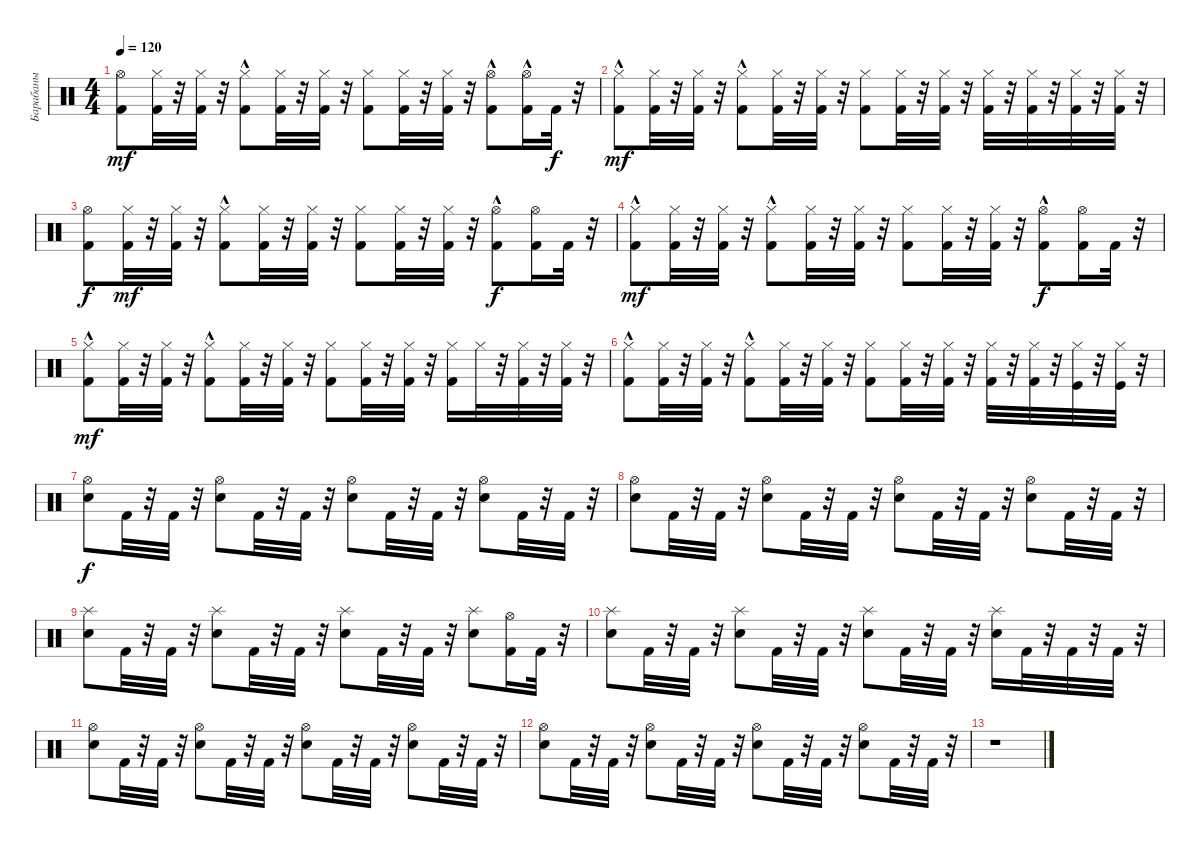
\track ("Барабаны" "Барабаны") {instrument percussion}
\staff {score}
\articulation defaults
\ts (4 4)
\tempo 120
\clef neutral
\ks c
("Kick (hit) 2" "Hi-Hat (open)").8{dy mf} ("Hi-Hat (closed)" "Kick (hit) 2").32 r.32 ("Hi-Hat (closed)" "Kick (hit) 2").32 r.32 ("Hi-Hat (closed)"{hac} "Kick (hit) 2").8 ("Hi-Hat (closed)" "Kick (hit) 2").32 r.32 ("Hi-Hat (closed)" "Kick (hit) 2").32 r.32 ("Hi-Hat (closed)" "Kick (hit) 2").8 ("Hi-Hat (closed)" "Kick (hit) 2").32 r.32 ("Hi-Hat (closed)" "Kick (hit) 2").32 r.32 ("Hi-Hat (open)"{hac} "Kick (hit) 2").8 ("Hi-Hat (open)"{hac} "Kick (hit) 2").16 "Kick (hit) 2".32{dy f} r.32 |
("Hi-Hat (closed)"{hac} "Kick (hit) 2").8{dy mf} ("Hi-Hat (closed)" "Kick (hit) 2").32 r.32 ("Hi-Hat (closed)" "Kick (hit) 2").32 r.32 ("Hi-Hat (closed)"{hac} "Kick (hit) 2").8 ("Hi-Hat (closed)" "Kick (hit) 2").32 r.32 ("Hi-Hat (closed)" "Kick (hit) 2").32 r.32 ("Hi-Hat (closed)" "Kick (hit) 2").8 ("Hi-Hat (closed)" "Kick (hit) 2").32 r.32 ("Hi-Hat (closed)" "Kick (hit) 2").32 r.32 ("Hi-Hat (closed)" "Kick (hit) 2").32 r.32 ("Hi-Hat (closed)" "Kick (hit) 2").32 r.32 ("Hi-Hat (closed)" "Kick (hit) 2").32 r.32 ("Hi-Hat (closed)" "Kick (hit) 2").32 r.32 |
("Hi-Hat (open)" "Kick (hit) 2").8{dy f} ("Hi-Hat (closed)" "Kick (hit) 2").32{dy mf} r.32 ("Hi-Hat (closed)" "Kick (hit) 2").32 r.32 ("Hi-Hat (closed)"{hac} "Kick (hit) 2").8 ("Hi-Hat (closed)" "Kick (hit) 2").32 r.32 ("Hi-Hat (closed)" "Kick (hit) 2").32 r.32 ("Hi-Hat (closed)" "Kick (hit) 2").8 ("Hi-Hat (closed)" "Kick (hit) 2").32 r.32 ("Hi-Hat (closed)" "Kick (hit) 2").32 r.32 ("Hi-Hat (open)"{hac} "Kick (hit) 2").8{dy f} ("Hi-Hat (open)" "Kick (hit) 2").16 "Kick (hit) 2".32 r.32 |
("Hi-Hat (closed)"{hac} "Kick (hit) 2").8{dy mf} ("Hi-Hat (closed)" "Kick (hit) 2").32 r.32 ("Hi-Hat (closed)" "Kick (hit) 2").32 r.32 ("Hi-Hat (closed)"{hac} "Kick (hit) 2").8 ("Hi-Hat (closed)" "Kick (hit) 2").32 r.32 ("Hi-Hat (closed)" "Kick (hit) 2").32 r.32 ("Hi-Hat (closed)" "Kick (hit) 2").8 ("Hi-Hat (closed)" "Kick (hit) 2").32 r.32 ("Hi-Hat (closed)" "Kick (hit) 2").32 r.32 ("Hi-Hat (open)"{hac} "Kick (hit) 2").8{dy f} ("Hi-Hat (open)" "Kick (hit) 2").16 "Kick (hit) 2".32 r.32 |
("Hi-Hat (closed)"{hac} "Kick (hit) 2").8{dy mf} ("Hi-Hat (closed)" "Kick (hit) 2").32 r.32 ("Hi-Hat (closed)" "Kick (hit) 2").32 r.32 ("Hi-Hat (closed)"{hac} "Kick (hit) 2").8 ("Hi-Hat (closed)" "Kick (hit) 2").32 r.32 ("Hi-Hat (closed)" "Kick (hit) 2").32 r.32 ("Hi-Hat (closed)" "Kick (hit) 2").8 ("Hi-Hat (closed)" "Kick (hit) 2").32 r.32 ("Hi-Hat (closed)" "Kick (hit) 2").32 r.32 ("Hi-Hat (closed)" "Kick (hit) 2").16 "Hi-Hat (closed)".32 r.32 ("Hi-Hat (closed)" "Kick (hit) 2").32 r.32 ("Hi-Hat (closed)" "Kick (hit) 2").32 r.32 |
("Hi-Hat (closed)"{hac} "Kick (hit) 2").8 ("Hi-Hat (closed)" "Kick (hit) 2").32 r.32 ("Hi-Hat (closed)" "Kick (hit) 2").32 r.32 ("Hi-Hat (closed)"{hac} "Kick (hit) 2").8 ("Hi-Hat (closed)" "Kick (hit) 2").32 r.32 ("Hi-Hat (closed)" "Kick (hit) 2").32 r.32 ("Hi-Hat (closed)" "Kick (hit) 2").8 ("Hi-Hat (closed)" "Kick (hit) 2").32 r.32 ("Hi-Hat (closed)" "Kick (hit) 2").32 r.32 ("Hi-Hat (closed)" "Kick (hit) 2").32 r.32 ("Hi-Hat (closed)" "Kick (hit) 2").32 r.32 ("Hi-Hat (closed)" "Kick (hit)").32 r.32 ("Hi-Hat (closed)" "Kick (hit)").32 r.32 |
("Snare (hit) 2" "Hi-Hat (open)").8{dy f} "Kick (hit) 2".32 r.32 "Kick (hit) 2".32 r.32 ("Snare (hit) 2" "Hi-Hat (open)").8 "Kick (hit) 2".32 r.32 "Kick (hit) 2".32 r.32 ("Snare (hit) 2" "Hi-Hat (open)").8 "Kick (hit) 2".32 r.32 "Kick (hit) 2".32 r.32 ("Snare (hit) 2" "Hi-Hat (open)").8 "Kick (hit) 2".32 r.32 "Kick (hit) 2".32 r.32 |
("Hi-Hat (open)" "Snare (hit) 2").8 "Kick (hit) 2".32 r.32 "Kick (hit) 2".32 r.32 ("Snare (hit) 2" "Hi-Hat (open)").8 "Kick (hit) 2".32 r.32 "Kick (hit) 2".32 r.32 ("Snare (hit) 2" "Hi-Hat (open)").8 "Kick (hit) 2".32 r.32 "Kick (hit) 2".32 r.32 ("Snare (hit) 2" "Hi-Hat (open)").8 "Kick (hit) 2".32 r.32 "Kick (hit) 2".32 r.32 |
("Snare (hit) 2" "Splash (hit)").8 "Kick (hit) 2".32 r.32 "Kick (hit) 2".32 r.32 ("Snare (hit) 2" "Splash (hit)").8 "Kick (hit) 2".32 r.32 "Kick (hit) 2".32 r.32 ("Snare (hit) 2" "Splash (hit)").8 "Kick (hit) 2".32 r.32 "Kick (hit) 2".32 r.32 ("Snare (hit) 2" "Splash (hit)").8 ("Hi-Hat (open)" "Kick (hit) 2").16 "Kick (hit) 2".32 r.32 |
("Snare (hit) 2" "Splash (hit)").8 "Kick (hit) 2".32 r.32 "Kick (hit) 2".32 r.32 ("Snare (hit) 2" "Splash (hit)").8 "Kick (hit) 2".32 r.32 "Kick (hit) 2".32 r.32 ("Snare (hit) 2" "Splash (hit)").8 "Kick (hit) 2".32 r.32 "Kick (hit) 2".32 r.32 ("Snare (hit) 2" "Splash (hit)").16 "Kick (hit) 2".32 r.32 "Kick (hit) 2".32 r.32 "Kick (hit) 2".32 r.32 |
("Snare (hit) 2" "Hi-Hat (open)").8 "Kick (hit) 2".32 r.32 "Kick (hit) 2".32 r.32 ("Snare (hit) 2" "Hi-Hat (open)").8 "Kick (hit) 2".32 r.32 "Kick (hit) 2".32 r.32 ("Snare (hit) 2" "Hi-Hat (open)").8 "Kick (hit) 2".32 r.32 "Kick (hit) 2".32 r.32 ("Snare (hit) 2" "Hi-Hat (open)").8 "Kick (hit) 2".32 r.32 "Kick (hit) 2".32 r.32 |
("Snare (hit) 2" "Hi-Hat (open)").8 "Kick (hit) 2".32 r.32 "Kick (hit) 2".32 r.32 ("Snare (hit) 2" "Hi-Hat (open)").8 "Kick (hit) 2".32 r.32 "Kick (hit) 2".32 r.32 ("Snare (hit) 2" "Hi-Hat (open)").8 "Kick (hit) 2".32 r.32 "Kick (hit) 2".32 r.32 ("Snare (hit) 2" "Hi-Hat (open)").8 "Kick (hit) 2".32 r.32 "Kick (hit) 2".32 r.32 |
r.1
